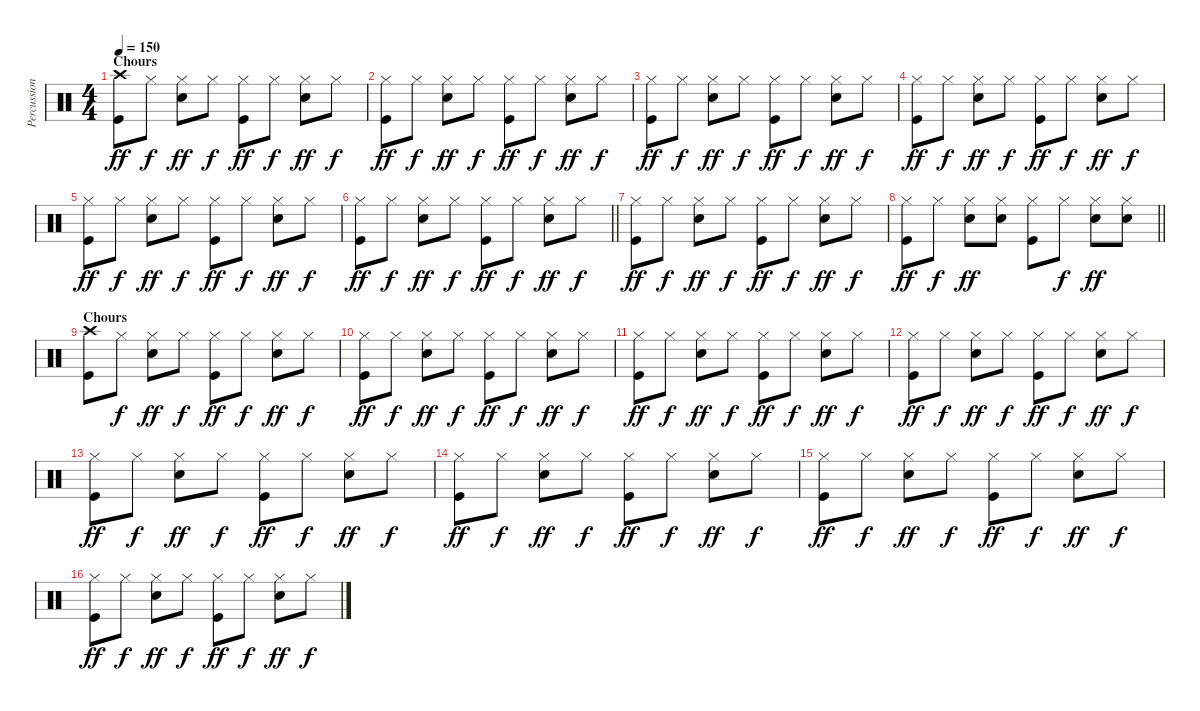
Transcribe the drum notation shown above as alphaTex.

\track ("Percussion" "Percussion") {instrument percussion}
\staff {score}
\articulation defaults
\ts (4 4)
\section ("" "Chours")
\tempo 150
\clef neutral
\ks c
("Crash high (hit)" "Kick (hit)").8{dy ff} "Hi-Hat (closed)".8{dy f} ("Hi-Hat (closed)" "Snare (hit) 2").8{dy ff} "Hi-Hat (closed)".8{dy f} ("Hi-Hat (closed)" "Kick (hit)").8{dy ff} "Hi-Hat (closed)".8{dy f} ("Hi-Hat (closed)" "Snare (hit) 2").8{dy ff} "Hi-Hat (closed)".8{dy f} |
("Hi-Hat (closed)" "Kick (hit)").8{dy ff} "Hi-Hat (closed)".8{dy f} ("Hi-Hat (closed)" "Snare (hit) 2").8{dy ff} "Hi-Hat (closed)".8{dy f} ("Hi-Hat (closed)" "Kick (hit)").8{dy ff} "Hi-Hat (closed)".8{dy f} ("Hi-Hat (closed)" "Snare (hit) 2").8{dy ff} "Hi-Hat (closed)".8{dy f} |
("Hi-Hat (closed)" "Kick (hit)").8{dy ff} "Hi-Hat (closed)".8{dy f} ("Hi-Hat (closed)" "Snare (hit) 2").8{dy ff} "Hi-Hat (closed)".8{dy f} ("Hi-Hat (closed)" "Kick (hit)").8{dy ff} "Hi-Hat (closed)".8{dy f} ("Hi-Hat (closed)" "Snare (hit) 2").8{dy ff} "Hi-Hat (closed)".8{dy f} |
("Hi-Hat (closed)" "Kick (hit)").8{dy ff} "Hi-Hat (closed)".8{dy f} ("Hi-Hat (closed)" "Snare (hit) 2").8{dy ff} "Hi-Hat (closed)".8{dy f} ("Hi-Hat (closed)" "Kick (hit)").8{dy ff} "Hi-Hat (closed)".8{dy f} ("Hi-Hat (closed)" "Snare (hit) 2").8{dy ff} "Hi-Hat (closed)".8{dy f} |
("Hi-Hat (closed)" "Kick (hit)").8{dy ff} "Hi-Hat (closed)".8{dy f} ("Hi-Hat (closed)" "Snare (hit) 2").8{dy ff} "Hi-Hat (closed)".8{dy f} ("Hi-Hat (closed)" "Kick (hit)").8{dy ff} "Hi-Hat (closed)".8{dy f} ("Hi-Hat (closed)" "Snare (hit) 2").8{dy ff} "Hi-Hat (closed)".8{dy f} |
\barLineRight lightlight
("Hi-Hat (closed)" "Kick (hit)").8{dy ff} "Hi-Hat (closed)".8{dy f} ("Hi-Hat (closed)" "Snare (hit) 2").8{dy ff} "Hi-Hat (closed)".8{dy f} ("Hi-Hat (closed)" "Kick (hit)").8{dy ff} "Hi-Hat (closed)".8{dy f} ("Hi-Hat (closed)" "Snare (hit) 2").8{dy ff} "Hi-Hat (closed)".8{dy f} |
("Hi-Hat (closed)" "Kick (hit)").8{dy ff} "Hi-Hat (closed)".8{dy f} ("Hi-Hat (closed)" "Snare (hit) 2").8{dy ff} "Hi-Hat (closed)".8{dy f} ("Hi-Hat (closed)" "Kick (hit)").8{dy ff} "Hi-Hat (closed)".8{dy f} ("Hi-Hat (closed)" "Snare (hit) 2").8{dy ff} "Hi-Hat (closed)".8{dy f} |
\barLineRight lightlight
("Hi-Hat (closed)" "Kick (hit)").8{dy ff} "Hi-Hat (closed)".8{dy f} ("Hi-Hat (closed)" "Snare (hit) 2").8{dy ff} ("Hi-Hat (closed)" "Snare (hit) 2").8 ("Hi-Hat (closed)" "Kick (hit)").8 "Hi-Hat (closed)".8{dy f} ("Hi-Hat (closed)" "Snare (hit) 2").8{dy ff} ("Hi-Hat (closed)" "Snare (hit) 2").8 |
\section ("" "Chours")
("Crash high (hit)" "Kick (hit)").8 "Hi-Hat (closed)".8{dy f} ("Hi-Hat (closed)" "Snare (hit) 2").8{dy ff} "Hi-Hat (closed)".8{dy f} ("Hi-Hat (closed)" "Kick (hit)").8{dy ff} "Hi-Hat (closed)".8{dy f} ("Hi-Hat (closed)" "Snare (hit) 2").8{dy ff} "Hi-Hat (closed)".8{dy f} |
("Hi-Hat (closed)" "Kick (hit)").8{dy ff} "Hi-Hat (closed)".8{dy f} ("Hi-Hat (closed)" "Snare (hit) 2").8{dy ff} "Hi-Hat (closed)".8{dy f} ("Hi-Hat (closed)" "Kick (hit)").8{dy ff} "Hi-Hat (closed)".8{dy f} ("Hi-Hat (closed)" "Snare (hit) 2").8{dy ff} "Hi-Hat (closed)".8{dy f} |
("Hi-Hat (closed)" "Kick (hit)").8{dy ff} "Hi-Hat (closed)".8{dy f} ("Hi-Hat (closed)" "Snare (hit) 2").8{dy ff} "Hi-Hat (closed)".8{dy f} ("Hi-Hat (closed)" "Kick (hit)").8{dy ff} "Hi-Hat (closed)".8{dy f} ("Hi-Hat (closed)" "Snare (hit) 2").8{dy ff} "Hi-Hat (closed)".8{dy f} |
("Hi-Hat (closed)" "Kick (hit)").8{dy ff} "Hi-Hat (closed)".8{dy f} ("Hi-Hat (closed)" "Snare (hit) 2").8{dy ff} "Hi-Hat (closed)".8{dy f} ("Hi-Hat (closed)" "Kick (hit)").8{dy ff} "Hi-Hat (closed)".8{dy f} ("Hi-Hat (closed)" "Snare (hit) 2").8{dy ff} "Hi-Hat (closed)".8{dy f} |
("Hi-Hat (closed)" "Kick (hit)").8{dy ff} "Hi-Hat (closed)".8{dy f} ("Hi-Hat (closed)" "Snare (hit) 2").8{dy ff} "Hi-Hat (closed)".8{dy f} ("Hi-Hat (closed)" "Kick (hit)").8{dy ff} "Hi-Hat (closed)".8{dy f} ("Hi-Hat (closed)" "Snare (hit) 2").8{dy ff} "Hi-Hat (closed)".8{dy f} |
("Hi-Hat (closed)" "Kick (hit)").8{dy ff} "Hi-Hat (closed)".8{dy f} ("Hi-Hat (closed)" "Snare (hit) 2").8{dy ff} "Hi-Hat (closed)".8{dy f} ("Hi-Hat (closed)" "Kick (hit)").8{dy ff} "Hi-Hat (closed)".8{dy f} ("Hi-Hat (closed)" "Snare (hit) 2").8{dy ff} "Hi-Hat (closed)".8{dy f} |
("Hi-Hat (closed)" "Kick (hit)").8{dy ff} "Hi-Hat (closed)".8{dy f} ("Hi-Hat (closed)" "Snare (hit) 2").8{dy ff} "Hi-Hat (closed)".8{dy f} ("Hi-Hat (closed)" "Kick (hit)").8{dy ff} "Hi-Hat (closed)".8{dy f} ("Hi-Hat (closed)" "Snare (hit) 2").8{dy ff} "Hi-Hat (closed)".8{dy f} |
("Hi-Hat (closed)" "Kick (hit)").8{dy ff} "Hi-Hat (closed)".8{dy f} ("Hi-Hat (closed)" "Snare (hit) 2").8{dy ff} "Hi-Hat (closed)".8{dy f} ("Hi-Hat (closed)" "Kick (hit)").8{dy ff} "Hi-Hat (closed)".8{dy f} ("Hi-Hat (closed)" "Snare (hit) 2").8{dy ff} "Hi-Hat (closed)".8{dy f}
